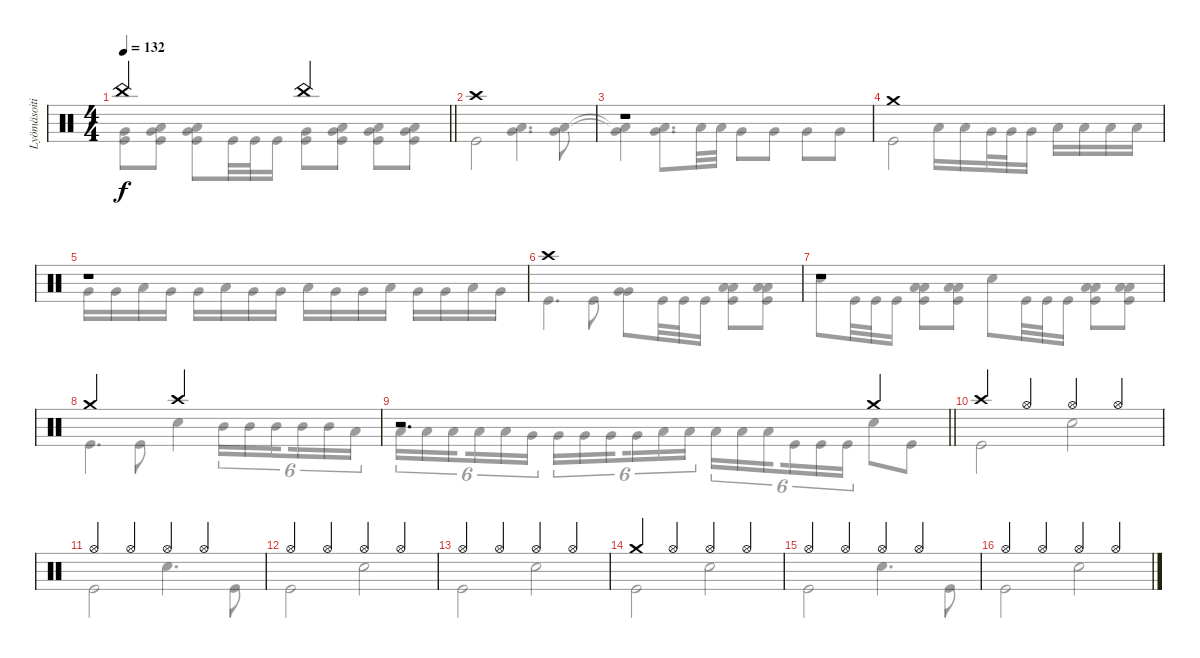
\track ("Lyömäsoitin" "Lyömäsoiti") {instrument percussion}
\staff {score}
\articulation defaults
\voice
\ts (4 4)
\tempo 132
\clef neutral
\barLineRight lightlight
\ks c "China (hit)".2{dy f} "China (hit)".2
|
\section ("" "")
"Crash high (hit)".1 |
r.1 |
"Crash medium (hit)".1 |
r.1 |
"Crash high (hit)".1 |
r.1 |
"Crash medium (hit)".2 "Crash high (hit)".2 |
\barLineRight lightlight
r.2{d} "Crash medium (hit)".4 |
\section ("" "")
"Crash high (hit)".4 "Hi-Hat (open)".4 "Hi-Hat (open)".4 "Hi-Hat (open)".4 |
"Hi-Hat (open)".4 "Hi-Hat (open)".4 "Hi-Hat (open)".4 "Hi-Hat (open)".4 |
"Hi-Hat (open)".4 "Hi-Hat (open)".4 "Hi-Hat (open)".4 "Hi-Hat (open)".4 |
"Hi-Hat (open)".4 "Hi-Hat (open)".4 "Hi-Hat (open)".4 "Hi-Hat (open)".4 |
"Crash medium (hit)".4 "Hi-Hat (open)".4 "Hi-Hat (open)".4 "Hi-Hat (open)".4 |
"Hi-Hat (open)".4 "Hi-Hat (open)".4 "Hi-Hat (open)".4 "Hi-Hat (open)".4 |
"Hi-Hat (open)".4 "Hi-Hat (open)".4 "Hi-Hat (open)".4 "Hi-Hat (open)".4
\voice
\clef neutral
\ottava regular
\simile none
\barLineRight lightlight
\ks c
("Very Low Tom (hit)" "Kick (hit)").8{dy f} ("Low Tom (hit)" "Very Low Tom (hit)" "Kick (hit)").8 ("Very Low Tom (hit)" "Low Floor Tom (hit)" "Kick (hit)").8 "Kick (hit)".32 "Kick (hit)".32 "Kick (hit)".16 ("Very Low Tom (hit)" "Kick (hit)").8 ("Low Tom (hit)" "Very Low Tom (hit)" "Kick (hit)").8 ("Very Low Tom (hit)" "Low Floor Tom (hit)" "Kick (hit)").8 ("Very Low Tom (hit)" "Low Floor Tom (hit)" "Kick (hit)").8 |
"Kick (hit)".2 ("Low Tom (hit)" "Very Low Tom (hit)").4{d} ("Very Low Tom (hit)" "Low Floor Tom (hit)").8 |
("Very Low Tom (hit)"{t} "Low Floor Tom (hit)"{t}).4 ("Very Low Tom (hit)" "Low Floor Tom (hit)").8{d} "Low Floor Tom (hit)".32 "Low Floor Tom (hit)".32 "Very Low Tom (hit)".8 "Very Low Tom (hit)".8 "Very Low Tom (hit)".8 "Very Low Tom (hit)".8 |
"Kick (hit)".2 "Low Tom (hit)".16 "Low Tom (hit)".16 "Very Low Tom (hit)".32 "Very Low Tom (hit)".32 "Very Low Tom (hit)".16 "Low Floor Tom (hit)".16 "Low Floor Tom (hit)".16 "Low Floor Tom (hit)".16 "Low Floor Tom (hit)".16 |
"Very Low Tom (hit)".16 "Very Low Tom (hit)".16 "Low Floor Tom (hit)".16 "Very Low Tom (hit)".16 "Very Low Tom (hit)".16 "Low Floor Tom (hit)".16 "Very Low Tom (hit)".16 "Very Low Tom (hit)".16 "Low Floor Tom (hit)".16 "Very Low Tom (hit)".16 "Very Low Tom (hit)".16 "Low Floor Tom (hit)".16 "Very Low Tom (hit)".16 "Very Low Tom (hit)".16 "Low Floor Tom (hit)".16 "Very Low Tom (hit)".16 |
"Kick (hit)".4{d} "Kick (hit)".8 ("Very Low Tom (hit)" "Very Low Tom (hit)").8 "Kick (hit)".32 "Kick (hit)".32 "Kick (hit)".16 ("Low Floor Tom (hit)" "Low Floor Tom (hit)" "Kick (hit)").8 ("Low Floor Tom (hit)" "Low Floor Tom (hit)" "Kick (hit)").8 |
"Electric Snare (hit)".8 "Kick (hit)".32 "Kick (hit)".32 "Kick (hit)".16 ("Low Floor Tom (hit)" "Low Floor Tom (hit)" "Kick (hit)").8 ("Low Floor Tom (hit)" "Low Floor Tom (hit)" "Kick (hit)").8 "Electric Snare (hit)".8 "Kick (hit)".32 "Kick (hit)".32 "Kick (hit)".16 ("Low Floor Tom (hit)" "Low Floor Tom (hit)" "Kick (hit)").8 ("Low Floor Tom (hit)" "Low Floor Tom (hit)" "Kick (hit)").8 |
"Kick (hit)".4{d} "Kick (hit)".8 "Electric Snare (hit)".4 "Mid Tom (hit)".16{tu (6 4)} "Mid Tom (hit)".16{tu (6 4)} "Mid Tom (hit)".16{tu (6 4) beam splitsecondary} "Mid Tom (hit)".16{tu (6 4)} "Mid Tom (hit)".16{tu (6 4)} "Low Tom (hit)".16{tu (6 4)} |
\barLineRight lightlight "Low Tom (hit)".16{tu (6 4)} "Low Tom (hit)".16{tu (6 4)} "Low Tom (hit)".16{tu (6 4) beam splitsecondary} "Low Tom (hit)".16{tu (6 4)} "Low Tom (hit)".16{tu (6 4)} "Very Low Tom (hit)".16{tu (6 4)} "Very Low Tom (hit)".16{tu (6 4)} "Very Low Tom (hit)".16{tu (6 4)} "Very Low Tom (hit)".16{tu (6 4) beam splitsecondary} "Very Low Tom (hit)".16{tu (6 4)} "Low Floor Tom (hit)".16{tu (6 4)} "Low Floor Tom (hit)".16{tu (6 4)} "Low Floor Tom (hit)".16{tu (6 4)} "Low Floor Tom (hit)".16{tu (6 4)} "Low Floor Tom (hit)".16{tu (6 4) beam splitsecondary} "Kick (hit)".16{tu (6 4)} "Kick (hit)".16{tu (6 4)} "Kick (hit)".16{tu (6 4)} "Electric Snare (hit)".8 "Kick (hit)".8
|
"Kick (hit)".2 "Electric Snare (hit)".2 |
"Kick (hit)".2 "Electric Snare (hit)".4{d} "Kick (hit)".8 |
"Kick (hit)".2 "Electric Snare (hit)".2 |
"Kick (hit)".2 "Electric Snare (hit)".2 |
"Kick (hit)".2 "Electric Snare (hit)".2 |
"Kick (hit)".2 "Electric Snare (hit)".4{d} "Kick (hit)".8 |
"Kick (hit)".2 "Electric Snare (hit)".2
